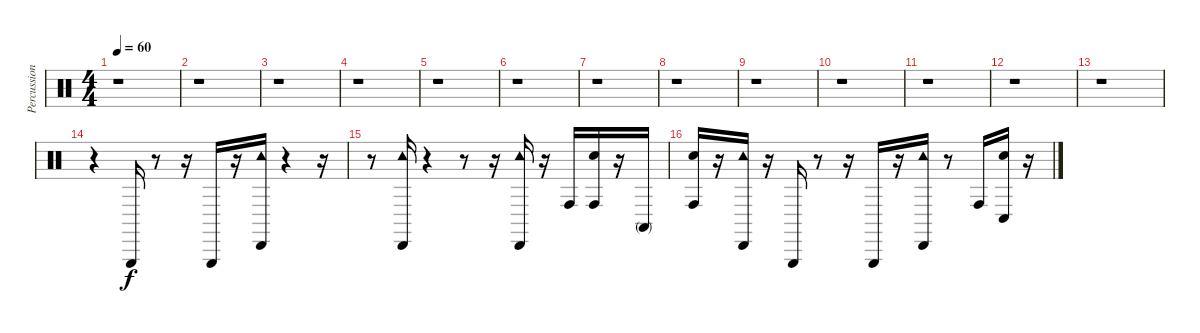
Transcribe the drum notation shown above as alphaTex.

\track ("Percussions" "Percussion") {instrument percussion}
\staff {score}
\articulation defaults
\ts (4 4)
\tempo 60
\clef neutral
\ks c
r.1{dy f} |
r.1 |
r.1 |
r.1 |
r.1 |
r.1 |
r.1 |
r.1 |
r.1 |
r.1 |
r.1 |
r.1 |
r.1 |
r.4 "Triangle (hit)".16 r.8 r.16 "Triangle (hit)".16 r.16 ("Tambourine (hit)" "Cabasa (hit)").16 r.4 r.16 |
r.8 ("Tambourine (hit)" "Cabasa (hit)").16 r.4 r.8 r.16 ("Tambourine (hit)" "Cabasa (hit)").16 r.16 "Conga high (hit)".16 ("Snare (hit)" "Conga high (hit)").16 r.16 "Conga high (mute)".16 |
("Snare (hit)" "Conga high (hit)").16 r.16 ("Tambourine (hit)" "Cabasa (hit)").16 r.16 "Triangle (hit)".16 r.8 r.16 "Triangle (hit)".16 r.16 ("Tambourine (hit)" "Cabasa (hit)").16 r.8 "Conga high (hit)".16 ("Snare (hit)" "Conga low (hit)").16 r.16
